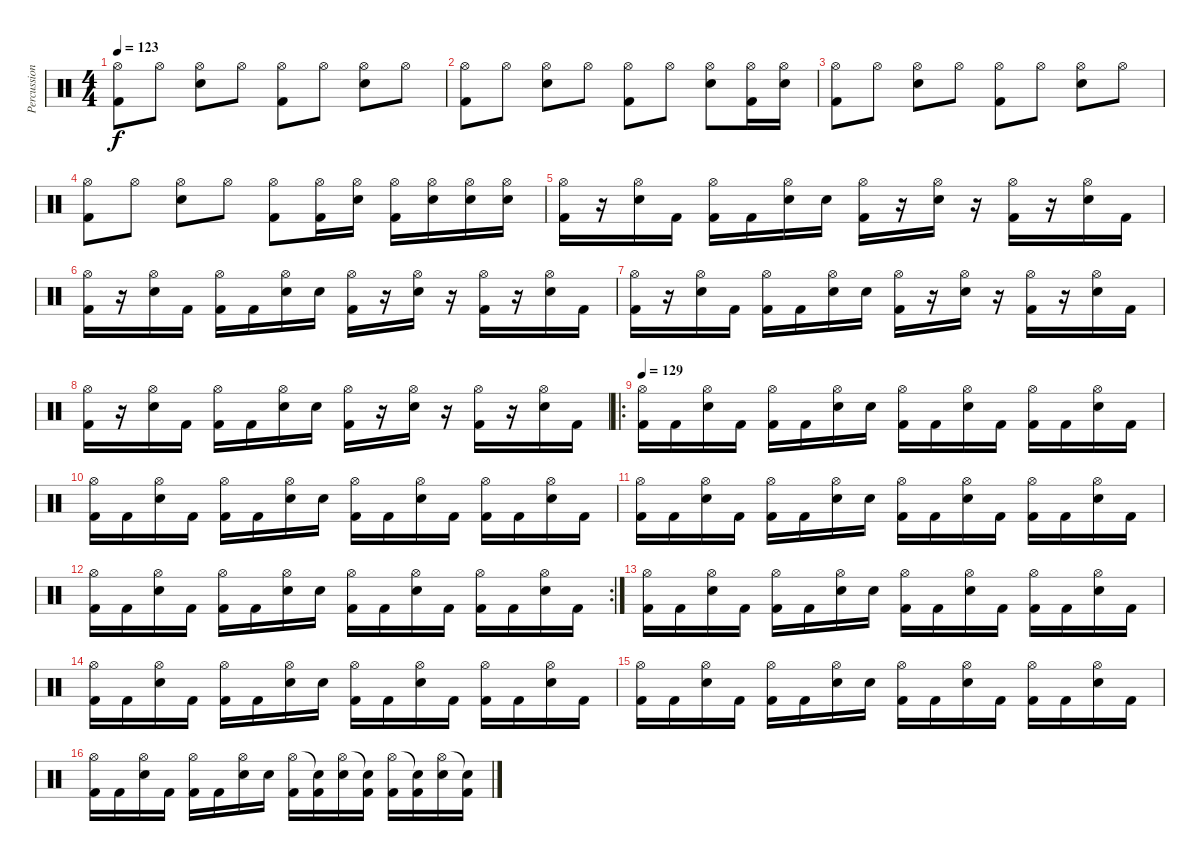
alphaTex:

\track ("Percussion" "Percussion") {instrument percussion}
\staff {score}
\articulation defaults
\ts (4 4)
\tempo 123
\clef neutral
\ks c
("Hi-Hat (open)" "Kick (hit) 2").8{dy f} "Hi-Hat (open)".8 ("Hi-Hat (open)" "Electric Snare (hit)").8 "Hi-Hat (open)".8 ("Hi-Hat (open)" "Kick (hit) 2").8 "Hi-Hat (open)".8 ("Hi-Hat (open)" "Electric Snare (hit)").8 "Hi-Hat (open)".8 |
("Hi-Hat (open)" "Kick (hit) 2").8 "Hi-Hat (open)".8 ("Hi-Hat (open)" "Electric Snare (hit)").8 "Hi-Hat (open)".8 ("Hi-Hat (open)" "Kick (hit) 2").8 "Hi-Hat (open)".8 ("Hi-Hat (open)" "Electric Snare (hit)").8 ("Hi-Hat (open)" "Kick (hit) 2").16 ("Hi-Hat (open)" "Electric Snare (hit)").16 |
("Hi-Hat (open)" "Kick (hit) 2").8 "Hi-Hat (open)".8 ("Hi-Hat (open)" "Electric Snare (hit)").8 "Hi-Hat (open)".8 ("Hi-Hat (open)" "Kick (hit) 2").8 "Hi-Hat (open)".8 ("Hi-Hat (open)" "Electric Snare (hit)").8 "Hi-Hat (open)".8 |
("Hi-Hat (open)" "Kick (hit) 2").8 "Hi-Hat (open)".8 ("Hi-Hat (open)" "Electric Snare (hit)").8 "Hi-Hat (open)".8 ("Hi-Hat (open)" "Kick (hit) 2").8 ("Hi-Hat (open)" "Kick (hit) 2").16 ("Hi-Hat (open)" "Electric Snare (hit)").16 ("Hi-Hat (open)" "Kick (hit) 2").16 ("Hi-Hat (open)" "Electric Snare (hit)").16 ("Hi-Hat (open)" "Electric Snare (hit)").16 ("Hi-Hat (open)" "Electric Snare (hit)").16 |
("Hi-Hat (open)" "Kick (hit) 2").16 r.16 ("Hi-Hat (open)" "Electric Snare (hit)").16 "Kick (hit) 2".16 ("Hi-Hat (open)" "Kick (hit) 2").16 "Kick (hit) 2".16 ("Hi-Hat (open)" "Electric Snare (hit)").16 "Electric Snare (hit)".16 ("Hi-Hat (open)" "Kick (hit) 2").16 r.16 ("Hi-Hat (open)" "Electric Snare (hit)").16 r.16 ("Hi-Hat (open)" "Kick (hit) 2").16 r.16 ("Hi-Hat (open)" "Electric Snare (hit)").16 "Kick (hit) 2".16 |
("Hi-Hat (open)" "Kick (hit) 2").16 r.16 ("Hi-Hat (open)" "Electric Snare (hit)").16 "Kick (hit) 2".16 ("Hi-Hat (open)" "Kick (hit) 2").16 "Kick (hit) 2".16 ("Hi-Hat (open)" "Electric Snare (hit)").16 "Electric Snare (hit)".16 ("Hi-Hat (open)" "Kick (hit) 2").16 r.16 ("Hi-Hat (open)" "Electric Snare (hit)").16 r.16 ("Hi-Hat (open)" "Kick (hit) 2").16 r.16 ("Hi-Hat (open)" "Electric Snare (hit)").16 "Kick (hit) 2".16 |
("Hi-Hat (open)" "Kick (hit) 2").16 r.16 ("Hi-Hat (open)" "Electric Snare (hit)").16 "Kick (hit) 2".16 ("Hi-Hat (open)" "Kick (hit) 2").16 "Kick (hit) 2".16 ("Hi-Hat (open)" "Electric Snare (hit)").16 "Electric Snare (hit)".16 ("Hi-Hat (open)" "Kick (hit) 2").16 r.16 ("Hi-Hat (open)" "Electric Snare (hit)").16 r.16 ("Hi-Hat (open)" "Kick (hit) 2").16 r.16 ("Hi-Hat (open)" "Electric Snare (hit)").16 "Kick (hit) 2".16 |
("Hi-Hat (open)" "Kick (hit) 2").16 r.16 ("Hi-Hat (open)" "Electric Snare (hit)").16 "Kick (hit) 2".16 ("Hi-Hat (open)" "Kick (hit) 2").16 "Kick (hit) 2".16 ("Hi-Hat (open)" "Electric Snare (hit)").16 "Electric Snare (hit)".16 ("Hi-Hat (open)" "Kick (hit) 2").16 r.16 ("Hi-Hat (open)" "Electric Snare (hit)").16 r.16 ("Hi-Hat (open)" "Kick (hit) 2").16 r.16 ("Hi-Hat (open)" "Electric Snare (hit)").16 "Kick (hit) 2".16 |
\ro
\tempo 129
("Hi-Hat (open)" "Kick (hit) 2").16 "Kick (hit) 2".16 ("Hi-Hat (open)" "Electric Snare (hit)").16 "Kick (hit) 2".16 ("Hi-Hat (open)" "Kick (hit) 2").16 "Kick (hit) 2".16 ("Hi-Hat (open)" "Electric Snare (hit)").16 "Electric Snare (hit)".16 ("Hi-Hat (open)" "Kick (hit) 2").16 "Kick (hit) 2".16 ("Hi-Hat (open)" "Electric Snare (hit)").16 "Kick (hit) 2".16 ("Hi-Hat (open)" "Kick (hit) 2").16 "Kick (hit) 2".16 ("Hi-Hat (open)" "Electric Snare (hit)").16 "Kick (hit) 2".16 |
("Hi-Hat (open)" "Kick (hit) 2").16 "Kick (hit) 2".16 ("Hi-Hat (open)" "Electric Snare (hit)").16 "Kick (hit) 2".16 ("Hi-Hat (open)" "Kick (hit) 2").16 "Kick (hit) 2".16 ("Hi-Hat (open)" "Electric Snare (hit)").16 "Electric Snare (hit)".16 ("Hi-Hat (open)" "Kick (hit) 2").16 "Kick (hit) 2".16 ("Hi-Hat (open)" "Electric Snare (hit)").16 "Kick (hit) 2".16 ("Hi-Hat (open)" "Kick (hit) 2").16 "Kick (hit) 2".16 ("Hi-Hat (open)" "Electric Snare (hit)").16 "Kick (hit) 2".16 |
("Hi-Hat (open)" "Kick (hit) 2").16 "Kick (hit) 2".16 ("Hi-Hat (open)" "Electric Snare (hit)").16 "Kick (hit) 2".16 ("Hi-Hat (open)" "Kick (hit) 2").16 "Kick (hit) 2".16 ("Hi-Hat (open)" "Electric Snare (hit)").16 "Electric Snare (hit)".16 ("Hi-Hat (open)" "Kick (hit) 2").16 "Kick (hit) 2".16 ("Hi-Hat (open)" "Electric Snare (hit)").16 "Kick (hit) 2".16 ("Hi-Hat (open)" "Kick (hit) 2").16 "Kick (hit) 2".16 ("Hi-Hat (open)" "Electric Snare (hit)").16 "Kick (hit) 2".16 |
\rc 2
("Hi-Hat (open)" "Kick (hit) 2").16 "Kick (hit) 2".16 ("Hi-Hat (open)" "Electric Snare (hit)").16 "Kick (hit) 2".16 ("Hi-Hat (open)" "Kick (hit) 2").16 "Kick (hit) 2".16 ("Hi-Hat (open)" "Electric Snare (hit)").16 "Electric Snare (hit)".16 ("Hi-Hat (open)" "Kick (hit) 2").16 "Kick (hit) 2".16 ("Hi-Hat (open)" "Electric Snare (hit)").16 "Kick (hit) 2".16 ("Hi-Hat (open)" "Kick (hit) 2").16 "Kick (hit) 2".16 ("Hi-Hat (open)" "Electric Snare (hit)").16 "Kick (hit) 2".16 |
("Hi-Hat (open)" "Kick (hit) 2").16 "Kick (hit) 2".16 ("Hi-Hat (open)" "Electric Snare (hit)").16 "Kick (hit) 2".16 ("Hi-Hat (open)" "Kick (hit) 2").16 "Kick (hit) 2".16 ("Hi-Hat (open)" "Electric Snare (hit)").16 "Electric Snare (hit)".16 ("Hi-Hat (open)" "Kick (hit) 2").16 "Kick (hit) 2".16 ("Hi-Hat (open)" "Electric Snare (hit)").16 "Kick (hit) 2".16 ("Hi-Hat (open)" "Kick (hit) 2").16 "Kick (hit) 2".16 ("Hi-Hat (open)" "Electric Snare (hit)").16 "Kick (hit) 2".16 |
("Hi-Hat (open)" "Kick (hit) 2").16 "Kick (hit) 2".16 ("Hi-Hat (open)" "Electric Snare (hit)").16 "Kick (hit) 2".16 ("Hi-Hat (open)" "Kick (hit) 2").16 "Kick (hit) 2".16 ("Hi-Hat (open)" "Electric Snare (hit)").16 "Electric Snare (hit)".16 ("Hi-Hat (open)" "Kick (hit) 2").16 "Kick (hit) 2".16 ("Hi-Hat (open)" "Electric Snare (hit)").16 "Kick (hit) 2".16 ("Hi-Hat (open)" "Kick (hit) 2").16 "Kick (hit) 2".16 ("Hi-Hat (open)" "Electric Snare (hit)").16 "Kick (hit) 2".16 |
("Hi-Hat (open)" "Kick (hit) 2").16 "Kick (hit) 2".16 ("Hi-Hat (open)" "Electric Snare (hit)").16 "Kick (hit) 2".16 ("Hi-Hat (open)" "Kick (hit) 2").16 "Kick (hit) 2".16 ("Hi-Hat (open)" "Electric Snare (hit)").16 "Electric Snare (hit)".16 ("Hi-Hat (open)" "Kick (hit) 2").16 "Kick (hit) 2".16 ("Hi-Hat (open)" "Electric Snare (hit)").16 "Kick (hit) 2".16 ("Hi-Hat (open)" "Kick (hit) 2").16 "Kick (hit) 2".16 ("Hi-Hat (open)" "Electric Snare (hit)").16 "Kick (hit) 2".16 |
("Hi-Hat (open)" "Kick (hit) 2").16 "Kick (hit) 2".16 ("Hi-Hat (open)" "Electric Snare (hit)").16 "Kick (hit) 2".16 ("Hi-Hat (open)" "Kick (hit) 2").16 "Kick (hit) 2".16 ("Hi-Hat (open)" "Electric Snare (hit)").16 "Electric Snare (hit)".16 ("Hi-Hat (open)" "Kick (hit) 2").16 ("Snare (hit)"{t} "Kick (hit) 2").16 ("Hi-Hat (open)" "Electric Snare (hit)").16 ("Snare (hit)"{t} "Kick (hit) 2").16 ("Hi-Hat (open)" "Kick (hit) 2").16 ("Snare (hit)"{t} "Kick (hit) 2").16 ("Hi-Hat (open)" "Electric Snare (hit)").16 ("Snare (hit)"{t} "Kick (hit) 2").16
